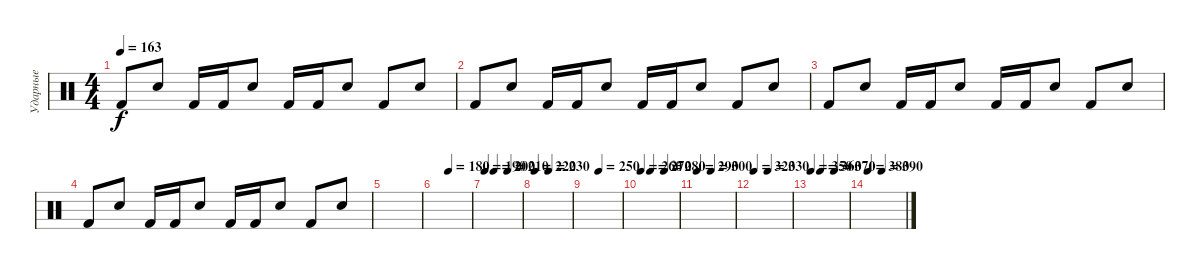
\track ("Ударные" "Ударные") {instrument percussion}
\staff {score}
\articulation defaults
\ts (4 4)
\tempo 163
\clef neutral
\ks c "Kick (hit) 2".8{dy f} "Electric Snare (hit)".8 "Kick (hit) 2".16 "Kick (hit) 2".16 "Electric Snare (hit)".8 "Kick (hit) 2".16 "Kick (hit) 2".16 "Electric Snare (hit)".8 "Kick (hit) 2".8 "Electric Snare (hit)".8
|
"Kick (hit) 2".8 "Electric Snare (hit)".8 "Kick (hit) 2".16 "Kick (hit) 2".16 "Electric Snare (hit)".8 "Kick (hit) 2".16 "Kick (hit) 2".16 "Electric Snare (hit)".8 "Kick (hit) 2".8 "Electric Snare (hit)".8 |
"Kick (hit) 2".8 "Electric Snare (hit)".8 "Kick (hit) 2".16 "Kick (hit) 2".16 "Electric Snare (hit)".8 "Kick (hit) 2".16 "Kick (hit) 2".16 "Electric Snare (hit)".8 "Kick (hit) 2".8 "Electric Snare (hit)".8 |
"Kick (hit) 2".8 "Electric Snare (hit)".8 "Kick (hit) 2".16 "Kick (hit) 2".16 "Electric Snare (hit)".8 "Kick (hit) 2".16 "Kick (hit) 2".16 "Electric Snare (hit)".8 "Kick (hit) 2".8 "Electric Snare (hit)".8 |
|
\tempo (180 0.375)
|
\tempo 190
\tempo (200 0.25)
\tempo (210 0.625)
|
\tempo 220
\tempo (230 0.375)
|
\tempo (250 0.375)
|
\tempo 260
\tempo (270 0.25)
\tempo (280 0.625)
|
\tempo 290
\tempo (300 0.375)
|
\tempo 320
\tempo (330 0.375)
|
\tempo 350
\tempo (360 0.25)
\tempo (370 0.625)
|
\tempo 380
\tempo (390 0.375)
